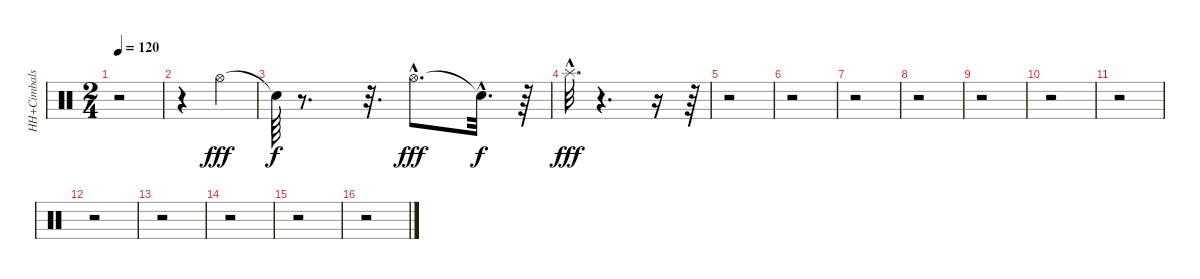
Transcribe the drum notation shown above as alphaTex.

\track ("HH+Cimbals" "HH+Cimbals") {instrument percussion}
\staff {score}
\articulation defaults
\ts (2 4)
\tempo 120
\clef neutral
\ks c
r.2{dy fff} |
r.4 "Hi-Hat (open)".4 |
"Snare (hit)"{t}.64{dy f} r.8{d} r.32{d} "Hi-Hat (open)"{hac}.8{d dy fff} "Snare (hit)"{hac t}.32{d dy f} r.64 |
"Splash (hit)"{hac}.32{d dy fff} r.4{d} r.16 r.64 |
r.2 |
r.2 |
r.2 |
r.2 |
r.2 |
r.2 |
r.2 |
r.2 |
r.2 |
r.2 |
r.2 |
r.2
